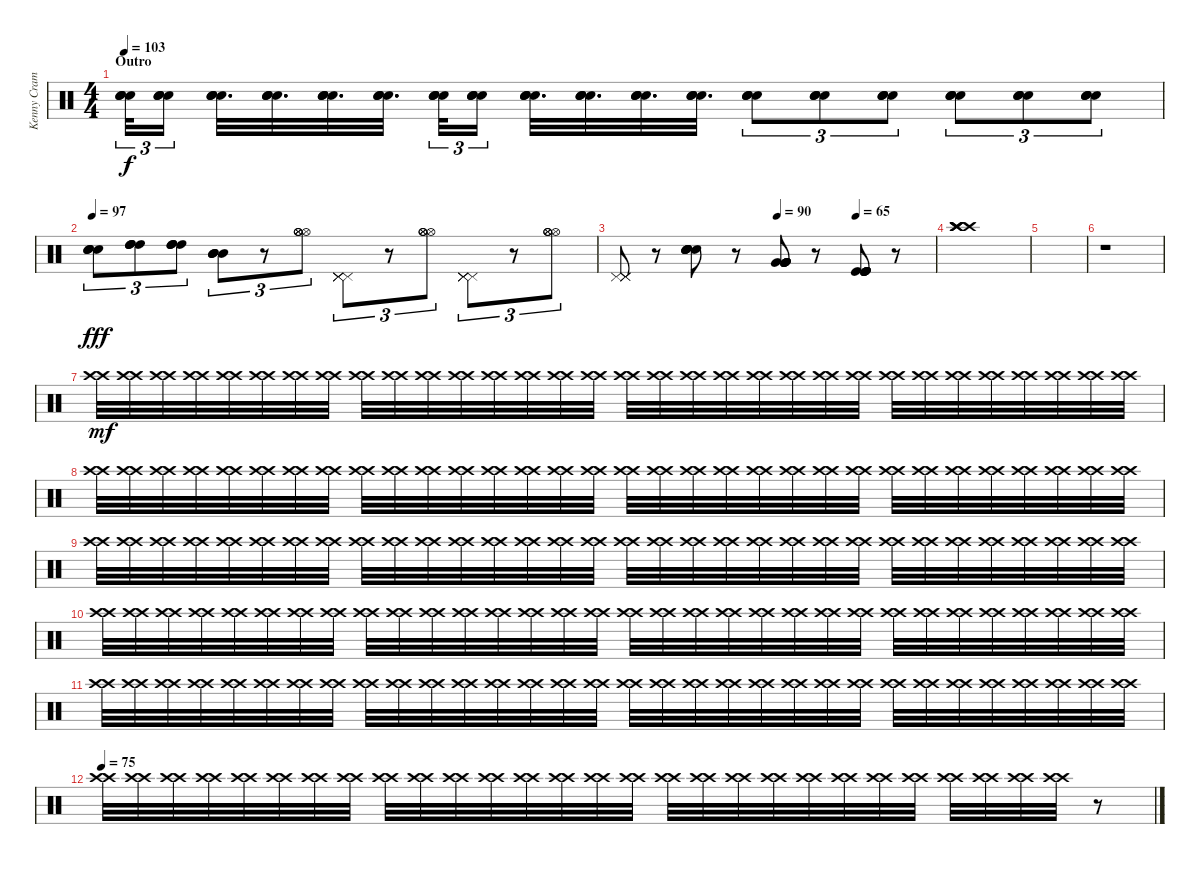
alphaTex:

\track ("Kenny Cramme" "Kenny Cram") {instrument percussion}
\staff {score}
\articulation defaults
\ts (4 4)
\section ("" "Outro")
\tempo 103
\clef neutral
\ks c
("Snare (hit) 2" "Snare (hit) 2" "Snare (hit) 2" "Snare (hit) 2").32{tu (3 2) dy f} ("Snare (hit) 2" "Snare (hit) 2" "Snare (hit) 2" "Snare (hit) 2").16{tu (3 2) beam splitsecondary} ("Snare (hit) 2" "Snare (hit) 2" "Snare (hit) 2" "Snare (hit) 2").32{d} ("Snare (hit) 2" "Snare (hit) 2" "Snare (hit) 2" "Snare (hit) 2").32{d} ("Snare (hit) 2" "Snare (hit) 2" "Snare (hit) 2" "Snare (hit) 2").32{d} ("Snare (hit) 2" "Snare (hit) 2" "Snare (hit) 2" "Snare (hit) 2").32{d} ("Snare (hit) 2" "Snare (hit) 2" "Snare (hit) 2" "Snare (hit) 2").32{tu (3 2)} ("Snare (hit) 2" "Snare (hit) 2" "Snare (hit) 2" "Snare (hit) 2").16{tu (3 2) beam splitsecondary} ("Snare (hit) 2" "Snare (hit) 2" "Snare (hit) 2" "Snare (hit) 2").32{d} ("Snare (hit) 2" "Snare (hit) 2" "Snare (hit) 2" "Snare (hit) 2").32{d} ("Snare (hit) 2" "Snare (hit) 2" "Snare (hit) 2" "Snare (hit) 2").32{d} ("Snare (hit) 2" "Snare (hit) 2" "Snare (hit) 2" "Snare (hit) 2").32{d} ("Snare (hit) 2" "Snare (hit) 2" "Snare (hit) 2" "Snare (hit) 2").8{tu (3 2)} ("Snare (hit) 2" "Snare (hit) 2" "Snare (hit) 2" "Snare (hit) 2").8{tu (3 2)} ("Snare (hit) 2" "Snare (hit) 2" "Snare (hit) 2" "Snare (hit) 2").8{tu (3 2)} ("Snare (hit) 2" "Snare (hit) 2" "Snare (hit) 2" "Snare (hit) 2").8{tu (3 2)} ("Snare (hit) 2" "Snare (hit) 2" "Snare (hit) 2" "Snare (hit) 2").8{tu (3 2)} ("Snare (hit) 2" "Snare (hit) 2" "Snare (hit) 2" "Snare (hit) 2").8{tu (3 2)} |
\tempo 97
("Snare (hit) 2" "Snare (hit) 2" "Snare (hit) 2" "Snare (hit) 2").8{tu (3 2) dy fff} ("High Tom (hit)" "High Tom (hit)" "High Tom (hit)" "High Tom (hit)").8{tu (3 2)} ("High Tom (hit)" "High Tom (hit)" "High Tom (hit)" "High Tom (hit)").8{tu (3 2)} ("Mid Tom (hit)" "Mid Tom (hit)" "Mid Tom (hit)" "Mid Tom (hit)").8{tu (3 2)} r.8{tu (3 2)} ("Hi-Hat (open)" "Hi-Hat (open)" "Hi-Hat (open)" "Hi-Hat (open)").8{tu (3 2)} ("Pedal Hi-Hat (hit)" "Pedal Hi-Hat (hit)" "Pedal Hi-Hat (hit)" "Pedal Hi-Hat (hit)").8{tu (3 2)} r.8{tu (3 2)} ("Hi-Hat (open)" "Hi-Hat (open)" "Hi-Hat (open)" "Hi-Hat (open)").8{tu (3 2)} ("Pedal Hi-Hat (hit)" "Pedal Hi-Hat (hit)" "Pedal Hi-Hat (hit)" "Pedal Hi-Hat (hit)").8{tu (3 2)} r.8{tu (3 2)} ("Hi-Hat (open)" "Hi-Hat (open)" "Hi-Hat (open)" "Hi-Hat (open)").8{tu (3 2)} |
\tempo (90 0.5)
\tempo (65 0.75)
("Pedal Hi-Hat (hit)" "Pedal Hi-Hat (hit)" "Pedal Hi-Hat (hit)" "Pedal Hi-Hat (hit)").8 r.8 ("Snare (hit) 2" "Snare (hit) 2" "Snare (hit) 2" "Snare (hit) 2" "Snare (hit) 2" "Snare (hit) 2").8 r.8 ("Very Low Tom (hit)" "Very Low Tom (hit)" "Very Low Tom (hit)" "Very Low Tom (hit)" "Very Low Tom (hit)" "Very Low Tom (hit)").8 r.8 ("Kick (hit)" "Kick (hit)" "Kick (hit)" "Kick (hit)" "Kick (hit)" "Kick (hit)").8 r.8 |
("Crash high (hit)" "Crash high (hit)" "Crash high (hit)" "Crash high (hit)").1 |
|
r.1{volume 0} |
("Crash high (hit)" "Crash high (hit)").32{dy mf volume 16} ("Crash high (hit)" "Crash high (hit)").32 ("Crash high (hit)" "Crash high (hit)").32 ("Crash high (hit)" "Crash high (hit)").32 ("Crash high (hit)" "Crash high (hit)").32 ("Crash high (hit)" "Crash high (hit)").32 ("Crash high (hit)" "Crash high (hit)").32 ("Crash high (hit)" "Crash high (hit)").32 ("Crash high (hit)" "Crash high (hit)").32 ("Crash high (hit)" "Crash high (hit)").32 ("Crash high (hit)" "Crash high (hit)").32 ("Crash high (hit)" "Crash high (hit)").32 ("Crash high (hit)" "Crash high (hit)").32 ("Crash high (hit)" "Crash high (hit)").32 ("Crash high (hit)" "Crash high (hit)").32 ("Crash high (hit)" "Crash high (hit)").32 ("Crash high (hit)" "Crash high (hit)").32 ("Crash high (hit)" "Crash high (hit)").32 ("Crash high (hit)" "Crash high (hit)").32 ("Crash high (hit)" "Crash high (hit)").32 ("Crash high (hit)" "Crash high (hit)").32 ("Crash high (hit)" "Crash high (hit)").32 ("Crash high (hit)" "Crash high (hit)").32 ("Crash high (hit)" "Crash high (hit)").32 ("Crash high (hit)" "Crash high (hit)").32 ("Crash high (hit)" "Crash high (hit)").32 ("Crash high (hit)" "Crash high (hit)").32 ("Crash high (hit)" "Crash high (hit)").32 ("Crash high (hit)" "Crash high (hit)").32 ("Crash high (hit)" "Crash high (hit)").32 ("Crash high (hit)" "Crash high (hit)").32 ("Crash high (hit)" "Crash high (hit)").32 |
("Crash high (hit)" "Crash high (hit)").32 ("Crash high (hit)" "Crash high (hit)").32 ("Crash high (hit)" "Crash high (hit)").32 ("Crash high (hit)" "Crash high (hit)").32 ("Crash high (hit)" "Crash high (hit)").32 ("Crash high (hit)" "Crash high (hit)").32 ("Crash high (hit)" "Crash high (hit)").32 ("Crash high (hit)" "Crash high (hit)").32 ("Crash high (hit)" "Crash high (hit)").32 ("Crash high (hit)" "Crash high (hit)").32 ("Crash high (hit)" "Crash high (hit)").32 ("Crash high (hit)" "Crash high (hit)").32 ("Crash high (hit)" "Crash high (hit)").32 ("Crash high (hit)" "Crash high (hit)").32 ("Crash high (hit)" "Crash high (hit)").32 ("Crash high (hit)" "Crash high (hit)").32 ("Crash high (hit)" "Crash high (hit)").32 ("Crash high (hit)" "Crash high (hit)").32 ("Crash high (hit)" "Crash high (hit)").32 ("Crash high (hit)" "Crash high (hit)").32 ("Crash high (hit)" "Crash high (hit)").32 ("Crash high (hit)" "Crash high (hit)").32 ("Crash high (hit)" "Crash high (hit)").32 ("Crash high (hit)" "Crash high (hit)").32 ("Crash high (hit)" "Crash high (hit)").32 ("Crash high (hit)" "Crash high (hit)").32 ("Crash high (hit)" "Crash high (hit)").32 ("Crash high (hit)" "Crash high (hit)").32 ("Crash high (hit)" "Crash high (hit)").32 ("Crash high (hit)" "Crash high (hit)").32 ("Crash high (hit)" "Crash high (hit)").32 ("Crash high (hit)" "Crash high (hit)").32 |
("Crash high (hit)" "Crash high (hit)").32 ("Crash high (hit)" "Crash high (hit)").32 ("Crash high (hit)" "Crash high (hit)").32 ("Crash high (hit)" "Crash high (hit)").32 ("Crash high (hit)" "Crash high (hit)").32 ("Crash high (hit)" "Crash high (hit)").32 ("Crash high (hit)" "Crash high (hit)").32 ("Crash high (hit)" "Crash high (hit)").32 ("Crash high (hit)" "Crash high (hit)").32 ("Crash high (hit)" "Crash high (hit)").32 ("Crash high (hit)" "Crash high (hit)").32 ("Crash high (hit)" "Crash high (hit)").32 ("Crash high (hit)" "Crash high (hit)").32 ("Crash high (hit)" "Crash high (hit)").32 ("Crash high (hit)" "Crash high (hit)").32 ("Crash high (hit)" "Crash high (hit)").32 ("Crash high (hit)" "Crash high (hit)").32 ("Crash high (hit)" "Crash high (hit)").32 ("Crash high (hit)" "Crash high (hit)").32 ("Crash high (hit)" "Crash high (hit)").32 ("Crash high (hit)" "Crash high (hit)").32 ("Crash high (hit)" "Crash high (hit)").32 ("Crash high (hit)" "Crash high (hit)").32 ("Crash high (hit)" "Crash high (hit)").32 ("Crash high (hit)" "Crash high (hit)").32 ("Crash high (hit)" "Crash high (hit)").32 ("Crash high (hit)" "Crash high (hit)").32 ("Crash high (hit)" "Crash high (hit)").32 ("Crash high (hit)" "Crash high (hit)").32 ("Crash high (hit)" "Crash high (hit)").32 ("Crash high (hit)" "Crash high (hit)").32 ("Crash high (hit)" "Crash high (hit)").32 |
("Crash high (hit)" "Crash high (hit)").32 ("Crash high (hit)" "Crash high (hit)").32 ("Crash high (hit)" "Crash high (hit)").32 ("Crash high (hit)" "Crash high (hit)").32 ("Crash high (hit)" "Crash high (hit)").32 ("Crash high (hit)" "Crash high (hit)").32 ("Crash high (hit)" "Crash high (hit)").32 ("Crash high (hit)" "Crash high (hit)").32 ("Crash high (hit)" "Crash high (hit)").32 ("Crash high (hit)" "Crash high (hit)").32 ("Crash high (hit)" "Crash high (hit)").32 ("Crash high (hit)" "Crash high (hit)").32 ("Crash high (hit)" "Crash high (hit)").32 ("Crash high (hit)" "Crash high (hit)").32 ("Crash high (hit)" "Crash high (hit)").32 ("Crash high (hit)" "Crash high (hit)").32 ("Crash high (hit)" "Crash high (hit)").32 ("Crash high (hit)" "Crash high (hit)").32 ("Crash high (hit)" "Crash high (hit)").32 ("Crash high (hit)" "Crash high (hit)").32 ("Crash high (hit)" "Crash high (hit)").32 ("Crash high (hit)" "Crash high (hit)").32 ("Crash high (hit)" "Crash high (hit)").32 ("Crash high (hit)" "Crash high (hit)").32 ("Crash high (hit)" "Crash high (hit)").32 ("Crash high (hit)" "Crash high (hit)").32 ("Crash high (hit)" "Crash high (hit)").32 ("Crash high (hit)" "Crash high (hit)").32 ("Crash high (hit)" "Crash high (hit)").32 ("Crash high (hit)" "Crash high (hit)").32 ("Crash high (hit)" "Crash high (hit)").32 ("Crash high (hit)" "Crash high (hit)").32 |
("Crash high (hit)" "Crash high (hit)").32 ("Crash high (hit)" "Crash high (hit)").32 ("Crash high (hit)" "Crash high (hit)").32 ("Crash high (hit)" "Crash high (hit)").32 ("Crash high (hit)" "Crash high (hit)").32 ("Crash high (hit)" "Crash high (hit)").32 ("Crash high (hit)" "Crash high (hit)").32 ("Crash high (hit)" "Crash high (hit)").32 ("Crash high (hit)" "Crash high (hit)").32 ("Crash high (hit)" "Crash high (hit)").32 ("Crash high (hit)" "Crash high (hit)").32 ("Crash high (hit)" "Crash high (hit)").32 ("Crash high (hit)" "Crash high (hit)").32 ("Crash high (hit)" "Crash high (hit)").32 ("Crash high (hit)" "Crash high (hit)").32 ("Crash high (hit)" "Crash high (hit)").32 ("Crash high (hit)" "Crash high (hit)").32 ("Crash high (hit)" "Crash high (hit)").32 ("Crash high (hit)" "Crash high (hit)").32 ("Crash high (hit)" "Crash high (hit)").32 ("Crash high (hit)" "Crash high (hit)").32 ("Crash high (hit)" "Crash high (hit)").32 ("Crash high (hit)" "Crash high (hit)").32 ("Crash high (hit)" "Crash high (hit)").32 ("Crash high (hit)" "Crash high (hit)").32 ("Crash high (hit)" "Crash high (hit)").32 ("Crash high (hit)" "Crash high (hit)").32 ("Crash high (hit)" "Crash high (hit)").32 ("Crash high (hit)" "Crash high (hit)").32 ("Crash high (hit)" "Crash high (hit)").32 ("Crash high (hit)" "Crash high (hit)").32 ("Crash high (hit)" "Crash high (hit)").32 |
\tempo 75
("Crash high (hit)" "Crash high (hit)").32{volume 0} ("Crash high (hit)" "Crash high (hit)").32 ("Crash high (hit)" "Crash high (hit)").32 ("Crash high (hit)" "Crash high (hit)").32 ("Crash high (hit)" "Crash high (hit)").32 ("Crash high (hit)" "Crash high (hit)").32 ("Crash high (hit)" "Crash high (hit)").32 ("Crash high (hit)" "Crash high (hit)").32 ("Crash high (hit)" "Crash high (hit)").32 ("Crash high (hit)" "Crash high (hit)").32 ("Crash high (hit)" "Crash high (hit)").32 ("Crash high (hit)" "Crash high (hit)").32 ("Crash high (hit)" "Crash high (hit)").32 ("Crash high (hit)" "Crash high (hit)").32 ("Crash high (hit)" "Crash high (hit)").32 ("Crash high (hit)" "Crash high (hit)").32 ("Crash high (hit)" "Crash high (hit)").32 ("Crash high (hit)" "Crash high (hit)").32 ("Crash high (hit)" "Crash high (hit)").32 ("Crash high (hit)" "Crash high (hit)").32 ("Crash high (hit)" "Crash high (hit)").32 ("Crash high (hit)" "Crash high (hit)").32 ("Crash high (hit)" "Crash high (hit)").32 ("Crash high (hit)" "Crash high (hit)").32 ("Crash high (hit)" "Crash high (hit)").32 ("Crash high (hit)" "Crash high (hit)").32 ("Crash high (hit)" "Crash high (hit)").32 ("Crash high (hit)" "Crash high (hit)").32 r.8
